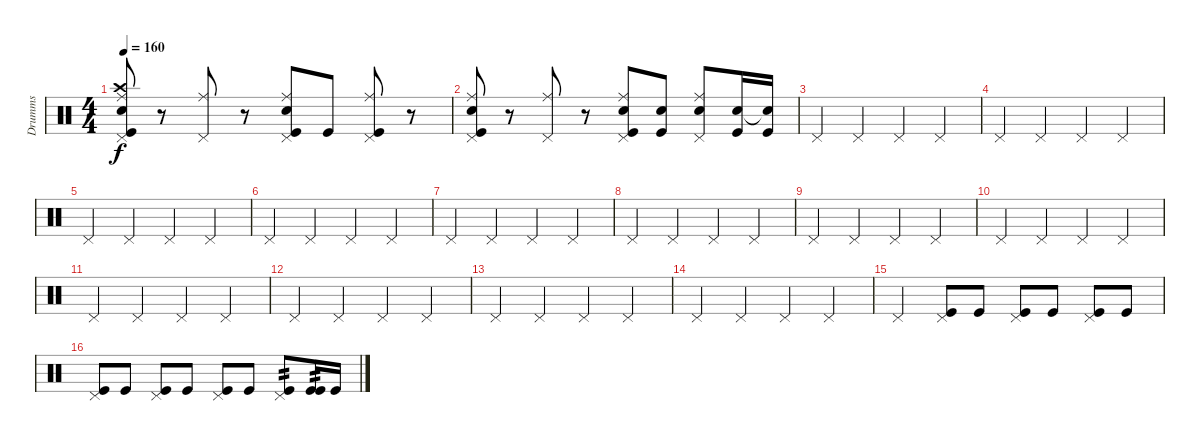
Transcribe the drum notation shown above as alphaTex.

\track ("Drumms" "Drumms") {instrument percussion}
\staff {score}
\articulation defaults
\ts (4 4)
\tempo 160
\clef neutral
\ks c
("Pedal Hi-Hat (hit)" "Ride (middle)" "Crash high (hit)" "Snare (hit) 2" "Kick (hit)").8{dy f} r.8 ("Pedal Hi-Hat (hit)" "Ride (middle)").8 r.8 ("Pedal Hi-Hat (hit)" "Ride (middle)" "Snare (hit) 2" "Kick (hit)").8 "Kick (hit)".8 ("Pedal Hi-Hat (hit)" "Ride (middle)" "Kick (hit)").8 r.8 |
("Pedal Hi-Hat (hit)" "Ride (middle)" "Snare (hit) 2" "Kick (hit)").8 r.8 ("Pedal Hi-Hat (hit)" "Ride (middle)").8 r.8 ("Pedal Hi-Hat (hit)" "Ride (middle)" "Snare (hit) 2" "Kick (hit)").8 ("Snare (hit) 2" "Kick (hit)").8 ("Pedal Hi-Hat (hit)" "Ride (middle)" "Snare (hit) 2").8 ("Snare (hit) 2" "Kick (hit)").16 ("Snare (hit) 2"{t} "Kick (hit)").16 |
"Pedal Hi-Hat (hit)".4 "Pedal Hi-Hat (hit)".4 "Pedal Hi-Hat (hit)".4 "Pedal Hi-Hat (hit)".4 |
"Pedal Hi-Hat (hit)".4 "Pedal Hi-Hat (hit)".4 "Pedal Hi-Hat (hit)".4 "Pedal Hi-Hat (hit)".4 |
"Pedal Hi-Hat (hit)".4 "Pedal Hi-Hat (hit)".4 "Pedal Hi-Hat (hit)".4 "Pedal Hi-Hat (hit)".4 |
"Pedal Hi-Hat (hit)".4 "Pedal Hi-Hat (hit)".4 "Pedal Hi-Hat (hit)".4 "Pedal Hi-Hat (hit)".4 |
"Pedal Hi-Hat (hit)".4 "Pedal Hi-Hat (hit)".4 "Pedal Hi-Hat (hit)".4 "Pedal Hi-Hat (hit)".4 |
"Pedal Hi-Hat (hit)".4 "Pedal Hi-Hat (hit)".4 "Pedal Hi-Hat (hit)".4 "Pedal Hi-Hat (hit)".4 |
"Pedal Hi-Hat (hit)".4 "Pedal Hi-Hat (hit)".4 "Pedal Hi-Hat (hit)".4 "Pedal Hi-Hat (hit)".4 |
"Pedal Hi-Hat (hit)".4 "Pedal Hi-Hat (hit)".4 "Pedal Hi-Hat (hit)".4 "Pedal Hi-Hat (hit)".4 |
"Pedal Hi-Hat (hit)".4 "Pedal Hi-Hat (hit)".4 "Pedal Hi-Hat (hit)".4 "Pedal Hi-Hat (hit)".4 |
"Pedal Hi-Hat (hit)".4 "Pedal Hi-Hat (hit)".4 "Pedal Hi-Hat (hit)".4 "Pedal Hi-Hat (hit)".4 |
"Pedal Hi-Hat (hit)".4 "Pedal Hi-Hat (hit)".4 "Pedal Hi-Hat (hit)".4 "Pedal Hi-Hat (hit)".4 |
"Pedal Hi-Hat (hit)".4 "Pedal Hi-Hat (hit)".4 "Pedal Hi-Hat (hit)".4 "Pedal Hi-Hat (hit)".4 |
"Pedal Hi-Hat (hit)".4 ("Pedal Hi-Hat (hit)" "Kick (hit)").8 "Kick (hit)".8 ("Pedal Hi-Hat (hit)" "Kick (hit)").8 "Kick (hit)".8 ("Pedal Hi-Hat (hit)" "Kick (hit)").8 "Kick (hit)".8 |
("Pedal Hi-Hat (hit)" "Kick (hit)").8 "Kick (hit)".8 ("Pedal Hi-Hat (hit)" "Kick (hit)").8 "Kick (hit)".8 ("Pedal Hi-Hat (hit)" "Kick (hit)").8 "Kick (hit)".8 ("Pedal Hi-Hat (hit)" "Kick (hit)").8{tp 2} ("Kick (hit)" "Kick (hit)").16{tp 2} "Kick (hit)".16
